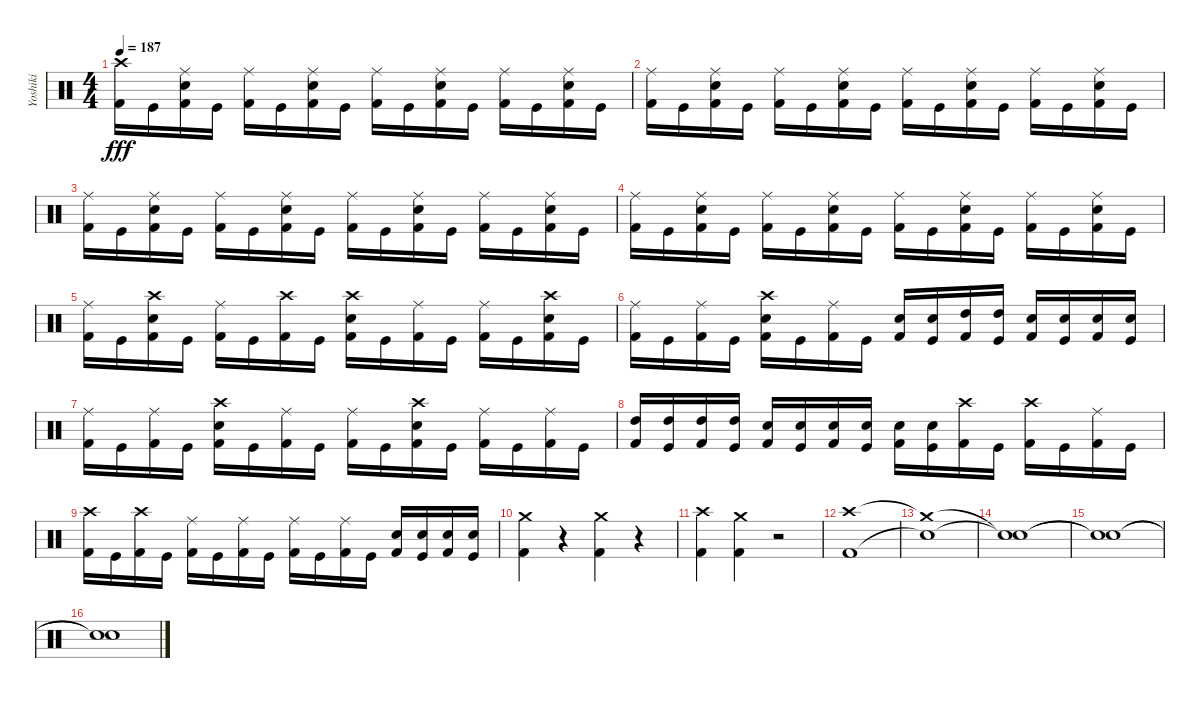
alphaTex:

\track ("Yoshiki" "Yoshiki") {instrument percussion}
\staff {score}
\articulation defaults
\ts (4 4)
\tempo 187
\clef neutral
\ks c
("Crash high (hit)" "Kick (hit) 2").16{dy fff} "Kick (hit)".16 ("Ride (middle)" "Electric Snare (hit)" "Kick (hit) 2").16 "Kick (hit)".16 ("Ride (middle)" "Kick (hit) 2").16 "Kick (hit)".16 ("Ride (middle)" "Electric Snare (hit)" "Kick (hit) 2").16 "Kick (hit)".16 ("Ride (middle)" "Kick (hit) 2").16 "Kick (hit)".16 ("Ride (middle)" "Electric Snare (hit)" "Kick (hit) 2").16 "Kick (hit)".16 ("Ride (middle)" "Kick (hit) 2").16 "Kick (hit)".16 ("Ride (middle)" "Electric Snare (hit)" "Kick (hit) 2").16 "Kick (hit)".16 |
("Ride (middle)" "Kick (hit) 2").16 "Kick (hit)".16 ("Ride (middle)" "Electric Snare (hit)" "Kick (hit) 2").16 "Kick (hit)".16 ("Ride (middle)" "Kick (hit) 2").16 "Kick (hit)".16 ("Ride (middle)" "Electric Snare (hit)" "Kick (hit) 2").16 "Kick (hit)".16 ("Ride (middle)" "Kick (hit) 2").16 "Kick (hit)".16 ("Ride (middle)" "Electric Snare (hit)" "Kick (hit) 2").16 "Kick (hit)".16 ("Ride (middle)" "Kick (hit) 2").16 "Kick (hit)".16 ("Ride (middle)" "Electric Snare (hit)" "Kick (hit) 2").16 "Kick (hit)".16 |
("Ride (middle)" "Kick (hit) 2").16 "Kick (hit)".16 ("Ride (middle)" "Electric Snare (hit)" "Kick (hit) 2").16 "Kick (hit)".16 ("Ride (middle)" "Kick (hit) 2").16 "Kick (hit)".16 ("Ride (middle)" "Electric Snare (hit)" "Kick (hit) 2").16 "Kick (hit)".16 ("Ride (middle)" "Kick (hit) 2").16 "Kick (hit)".16 ("Ride (middle)" "Electric Snare (hit)" "Kick (hit) 2").16 "Kick (hit)".16 ("Ride (middle)" "Kick (hit) 2").16 "Kick (hit)".16 ("Ride (middle)" "Electric Snare (hit)" "Kick (hit) 2").16 "Kick (hit)".16 |
("Ride (middle)" "Kick (hit) 2").16 "Kick (hit)".16 ("Ride (middle)" "Electric Snare (hit)" "Kick (hit) 2").16 "Kick (hit)".16 ("Ride (middle)" "Kick (hit) 2").16 "Kick (hit)".16 ("Ride (middle)" "Electric Snare (hit)" "Kick (hit) 2").16 "Kick (hit)".16 ("Ride (middle)" "Kick (hit) 2").16 "Kick (hit)".16 ("Ride (middle)" "Electric Snare (hit)" "Kick (hit) 2").16 "Kick (hit)".16 ("Ride (middle)" "Kick (hit) 2").16 "Kick (hit)".16 ("Ride (middle)" "Electric Snare (hit)" "Kick (hit) 2").16 "Kick (hit)".16 |
("Ride (middle)" "Kick (hit) 2").16 "Kick (hit)".16 ("Crash high (hit)" "Electric Snare (hit)" "Kick (hit) 2").16 "Kick (hit)".16 ("Ride (middle)" "Kick (hit) 2").16 "Kick (hit)".16 ("Crash high (hit)" "Kick (hit) 2").16 "Kick (hit)".16 ("Crash high (hit)" "Electric Snare (hit)" "Kick (hit) 2").16 "Kick (hit)".16 ("Ride (middle)" "Kick (hit) 2").16 "Kick (hit)".16 ("Ride (middle)" "Kick (hit) 2").16 "Kick (hit)".16 ("Crash high (hit)" "Electric Snare (hit)" "Kick (hit) 2").16 "Kick (hit)".16 |
("Ride (middle)" "Kick (hit) 2").16 "Kick (hit)".16 ("Ride (middle)" "Kick (hit) 2").16 "Kick (hit)".16 ("Crash high (hit)" "Electric Snare (hit)" "Kick (hit) 2").16 "Kick (hit)".16 ("Ride (middle)" "Kick (hit) 2").16 "Kick (hit)".16 ("Electric Snare (hit)" "Kick (hit) 2").16 ("Electric Snare (hit)" "Kick (hit)").16 ("High Tom (hit)" "Kick (hit) 2").16 ("High Tom (hit)" "Kick (hit)").16 ("Electric Snare (hit)" "Kick (hit) 2").16 ("Electric Snare (hit)" "Kick (hit)").16 ("Electric Snare (hit)" "Kick (hit) 2").16 ("Electric Snare (hit)" "Kick (hit)").16 |
("Ride (middle)" "Kick (hit) 2").16 "Kick (hit)".16 ("Ride (middle)" "Kick (hit) 2").16 "Kick (hit)".16 ("Crash high (hit)" "Electric Snare (hit)" "Kick (hit) 2").16 "Kick (hit)".16 ("Ride (middle)" "Kick (hit) 2").16 "Kick (hit)".16 ("Ride (middle)" "Kick (hit) 2").16 "Kick (hit)".16 ("Crash high (hit)" "Electric Snare (hit)" "Kick (hit) 2").16 "Kick (hit)".16 ("Ride (middle)" "Kick (hit) 2").16 "Kick (hit)".16 ("Ride (middle)" "Kick (hit) 2").16 "Kick (hit)".16 |
("High Tom (hit)" "Kick (hit) 2").16 ("High Tom (hit)" "Kick (hit)").16 ("High Tom (hit)" "Kick (hit) 2").16 ("High Tom (hit)" "Kick (hit)").16 ("Electric Snare (hit)" "Kick (hit) 2").16 ("Electric Snare (hit)" "Kick (hit)").16 ("Electric Snare (hit)" "Kick (hit) 2").16 ("Electric Snare (hit)" "Kick (hit)").16 ("Electric Snare (hit)" "Kick (hit) 2").16 ("Electric Snare (hit)" "Kick (hit)").16 ("Crash high (hit)" "Kick (hit) 2").16 "Kick (hit)".16 ("Crash high (hit)" "Kick (hit) 2").16 "Kick (hit)".16 ("Ride (middle)" "Kick (hit) 2").16 "Kick (hit)".16 |
("Crash high (hit)" "Kick (hit) 2").16 "Kick (hit)".16 ("Crash high (hit)" "Kick (hit) 2").16 "Kick (hit)".16 ("Ride (middle)" "Kick (hit) 2").16 "Kick (hit)".16 ("Ride (middle)" "Kick (hit) 2").16 "Kick (hit)".16 ("Ride (middle)" "Kick (hit) 2").16 "Kick (hit)".16 ("Ride (middle)" "Kick (hit) 2").16 "Kick (hit)".16 ("Electric Snare (hit)" "Kick (hit) 2").16 ("Electric Snare (hit)" "Kick (hit)").16 ("Electric Snare (hit)" "Kick (hit) 2").16 ("Electric Snare (hit)" "Kick (hit)").16 |
("Crash medium (hit)" "Kick (hit) 2").4 r.4 ("Crash medium (hit)" "Kick (hit) 2").4 r.4 |
("Crash high (hit)" "Kick (hit) 2").4 ("Crash medium (hit)" "Kick (hit) 2").4 r.2 |
("Crash high (hit)" "Kick (hit) 2").1 |
("Crash medium (hit)"{t} "Snare (hit)"{t}).1 |
("Snare (hit)"{t} "Snare (hit)"{t}).1 |
("Snare (hit)"{t} "Snare (hit)"{t}).1 |
("Snare (hit)"{t} "Snare (hit)"{t}).1
